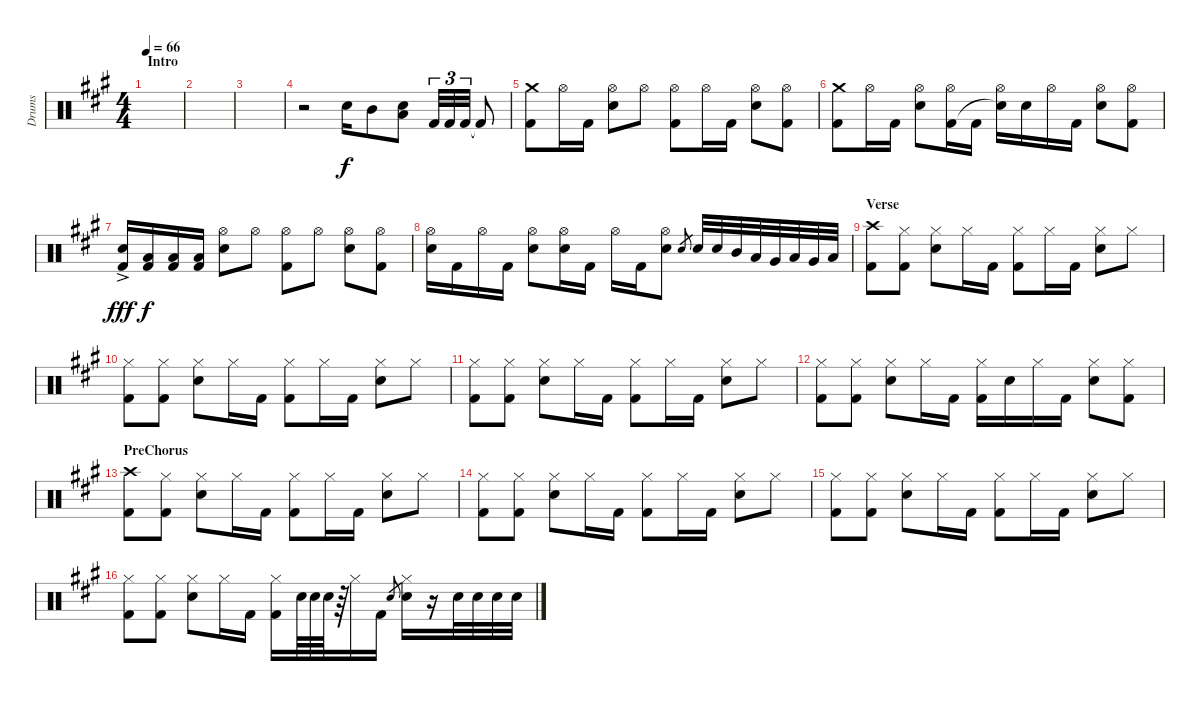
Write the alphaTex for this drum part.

\track ("Drums" "Drums") {instrument percussion}
\staff {score}
\articulation defaults
\ts (4 4)
\section ("" "Intro")
\tempo 66
\clef neutral
\ks a
|
|
|
r.2 "Snare (hit) 2".16 "Mid Tom (hit)".8 ("Snare (hit) 2" "Low Floor Tom (hit)").8 "Kick (hit) 2".32{tu (3 2)} "Kick (hit) 2".32{tu (3 2)} "Kick (hit) 2".32{tu (3 2)} "Kick (hit) 2"{t}.8 |
("Crash medium (hit)" "Kick (hit) 2").8 "Hi-Hat (open)".16 "Kick (hit) 2".16 ("Hi-Hat (open)" "Snare (hit) 2").8 "Hi-Hat (open)".8 ("Hi-Hat (open)" "Kick (hit) 2").8 "Hi-Hat (open)".16 "Kick (hit) 2".16 ("Hi-Hat (open)" "Snare (hit) 2").8 ("Hi-Hat (open)" "Kick (hit) 2").8 |
("Crash medium (hit)" "Kick (hit) 2").8 "Hi-Hat (open)".16 "Kick (hit) 2".16 ("Hi-Hat (open)" "Snare (hit) 2").8 ("Hi-Hat (open)" "Kick (hit) 2").16 "Kick (hit) 2".16 ("Hi-Hat (open)" "Snare (hit)"{t}).16 "Snare (hit) 2".16 "Hi-Hat (open)".16 "Kick (hit) 2".16 ("Hi-Hat (open)" "Snare (hit) 2").8 ("Hi-Hat (open)" "Kick (hit) 2").8 |
("Snare (hit) 2"{ac} "Kick (hit) 2").16{dy fff} ("Low Floor Tom (hit)" "Kick (hit) 2").16{dy f} ("Low Floor Tom (hit)" "Kick (hit) 2").16 ("Low Floor Tom (hit)" "Kick (hit) 2").16 ("Hi-Hat (open)" "Snare (hit) 2").8 "Hi-Hat (open)".8 ("Hi-Hat (open)" "Kick (hit) 2").8 "Hi-Hat (open)".8 ("Hi-Hat (open)" "Snare (hit) 2").8 ("Hi-Hat (open)" "Kick (hit) 2").8 |
("Hi-Hat (open)" "Snare (hit) 2").16 "Kick (hit) 2".16 "Hi-Hat (open)".16 "Kick (hit) 2".16 ("Hi-Hat (open)" "Snare (hit) 2").8 ("Hi-Hat (open)" "Snare (hit) 2").16 "Kick (hit) 2".16 "Hi-Hat (open)".16 "Kick (hit) 2".16 ("Hi-Hat (open)" "Snare (hit) 2").8 "Snare (hit) 2".8{gr} "Snare (hit) 2".32 "Snare (hit) 2".32 "Mid Tom (hit)".32 "Low Tom (hit)".32 "Very Low Tom (hit)".32 "Low Tom (hit)".32 "Very Low Tom (hit)".32 "Low Floor Tom (hit)".32 |
\section ("" "Verse")
("Crash high (hit)" "Kick (hit) 2").8 ("Hi-Hat (closed)" "Kick (hit) 2").8 ("Hi-Hat (closed)" "Snare (hit) 2").8 "Hi-Hat (closed)".16 "Kick (hit) 2".16 ("Hi-Hat (closed)" "Kick (hit) 2").8 "Hi-Hat (closed)".16 "Kick (hit) 2".16 ("Hi-Hat (closed)" "Snare (hit) 2").8 "Hi-Hat (closed)".8 |
("Hi-Hat (closed)" "Kick (hit) 2").8 ("Hi-Hat (closed)" "Kick (hit) 2").8 ("Hi-Hat (closed)" "Snare (hit) 2").8 "Hi-Hat (closed)".16 "Kick (hit) 2".16 ("Hi-Hat (closed)" "Kick (hit) 2").8 "Hi-Hat (closed)".16 "Kick (hit) 2".16 ("Hi-Hat (closed)" "Snare (hit) 2").8 "Hi-Hat (closed)".8 |
("Hi-Hat (closed)" "Kick (hit) 2").8 ("Hi-Hat (closed)" "Kick (hit) 2").8 ("Hi-Hat (closed)" "Snare (hit) 2").8 "Hi-Hat (closed)".16 "Kick (hit) 2".16 ("Hi-Hat (closed)" "Kick (hit) 2").8 "Hi-Hat (closed)".16 "Kick (hit) 2".16 ("Hi-Hat (closed)" "Snare (hit) 2").8 "Hi-Hat (closed)".8 |
("Hi-Hat (closed)" "Kick (hit) 2").8 ("Hi-Hat (closed)" "Kick (hit) 2").8 ("Hi-Hat (closed)" "Snare (hit) 2").8 "Hi-Hat (closed)".16 "Kick (hit) 2".16 ("Hi-Hat (closed)" "Kick (hit) 2").16 "Snare (hit) 2".16 "Hi-Hat (closed)".16 "Kick (hit) 2".16 ("Hi-Hat (closed)" "Snare (hit) 2").8 ("Hi-Hat (closed)" "Kick (hit) 2").8 |
\section ("" "PreChorus")
("Crash high (hit)" "Kick (hit) 2").8 ("Hi-Hat (closed)" "Kick (hit) 2").8 ("Hi-Hat (closed)" "Snare (hit) 2").8 "Hi-Hat (closed)".16 "Kick (hit) 2".16 ("Hi-Hat (closed)" "Kick (hit) 2").8 "Hi-Hat (closed)".16 "Kick (hit) 2".16 ("Hi-Hat (closed)" "Snare (hit) 2").8 "Hi-Hat (closed)".8 |
("Hi-Hat (closed)" "Kick (hit) 2").8 ("Hi-Hat (closed)" "Kick (hit) 2").8 ("Hi-Hat (closed)" "Snare (hit) 2").8 "Hi-Hat (closed)".16 "Kick (hit) 2".16 ("Hi-Hat (closed)" "Kick (hit) 2").8 "Hi-Hat (closed)".16 "Kick (hit) 2".16 ("Hi-Hat (closed)" "Snare (hit) 2").8 "Hi-Hat (closed)".8 |
("Hi-Hat (closed)" "Kick (hit) 2").8 ("Hi-Hat (closed)" "Kick (hit) 2").8 ("Hi-Hat (closed)" "Snare (hit) 2").8 "Hi-Hat (closed)".16 "Kick (hit) 2".16 ("Hi-Hat (closed)" "Kick (hit) 2").8 "Hi-Hat (closed)".16 "Kick (hit) 2".16 ("Hi-Hat (closed)" "Snare (hit) 2").8 "Hi-Hat (closed)".8 |
("Hi-Hat (closed)" "Kick (hit) 2").8 ("Hi-Hat (closed)" "Kick (hit) 2").8 ("Hi-Hat (closed)" "Snare (hit) 2").8 "Hi-Hat (closed)".16 "Kick (hit) 2".16 ("Hi-Hat (closed)" "Kick (hit) 2").16 "Snare (hit) 2".64 "Snare (hit) 2".64 "Snare (hit) 2".64 r.64 "Hi-Hat (closed)".16 "Kick (hit) 2".16 "Snare (hit) 2".8{gr} ("Hi-Hat (closed)" "Snare (hit) 2").16 r.16 "Snare (hit) 2".32 "Snare (hit) 2".32 "Snare (hit) 2".32 "Snare (hit) 2".32
